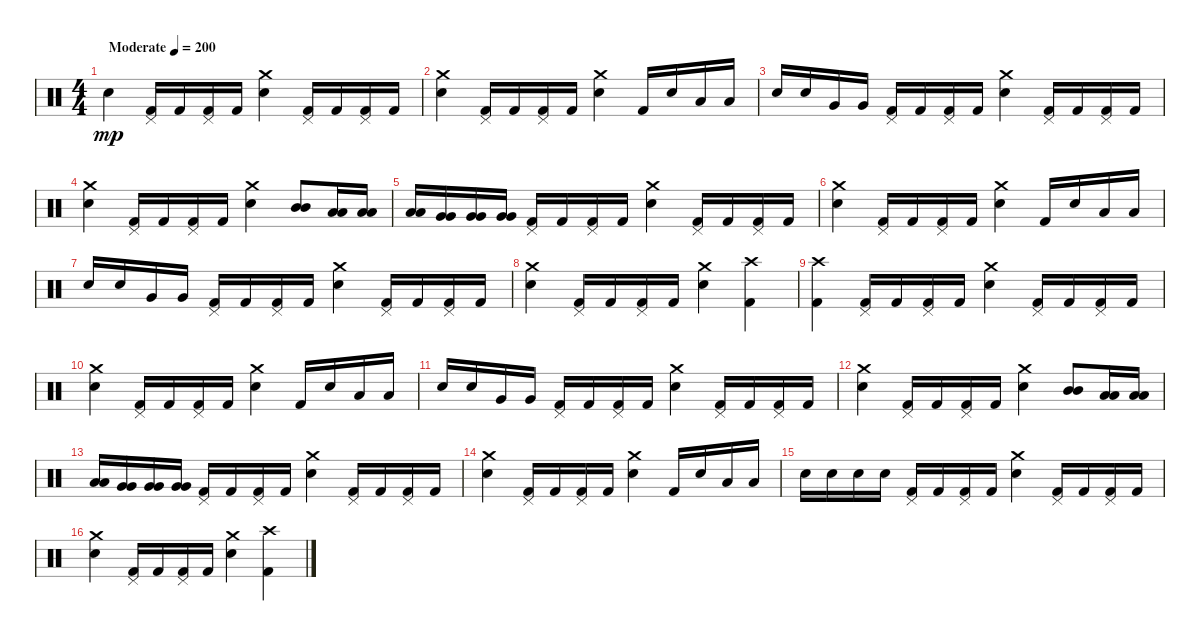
\track "" {instrument percussion}
\staff {score}
\articulation defaults
\ts (4 4)
\tempo (200 "Moderate")
\clef neutral
\ks c "Electric Snare (hit)".4{dy mp}
("Kick (hit) 2" "Pedal Hi-Hat (hit)").16 "Kick (hit) 2".16 ("Kick (hit) 2" "Pedal Hi-Hat (hit)").16 "Kick (hit) 2".16 ("Electric Snare (hit)" "Crash medium (hit)").4 ("Kick (hit) 2" "Pedal Hi-Hat (hit)").16 "Kick (hit) 2".16 ("Kick (hit) 2" "Pedal Hi-Hat (hit)").16 "Kick (hit) 2".16 |
("Electric Snare (hit)" "Crash medium (hit)").4 ("Kick (hit) 2" "Pedal Hi-Hat (hit)").16 "Kick (hit) 2".16 ("Kick (hit) 2" "Pedal Hi-Hat (hit)").16 "Kick (hit) 2".16 ("Electric Snare (hit)" "Crash medium (hit)").4 "Kick (hit) 2".16 "Electric Snare (hit)".16 "Low Tom (hit)".16 "Low Tom (hit)".16 |
"Electric Snare (hit)".16 "Electric Snare (hit)".16 "Very Low Tom (hit)".16 "Very Low Tom (hit)".16 ("Kick (hit) 2" "Pedal Hi-Hat (hit)").16 "Kick (hit) 2".16 ("Kick (hit) 2" "Pedal Hi-Hat (hit)").16 "Kick (hit) 2".16 ("Electric Snare (hit)" "Crash medium (hit)").4 ("Kick (hit) 2" "Pedal Hi-Hat (hit)").16 "Kick (hit) 2".16 ("Kick (hit) 2" "Pedal Hi-Hat (hit)").16 "Kick (hit) 2".16 |
("Electric Snare (hit)" "Crash medium (hit)").4 ("Kick (hit) 2" "Pedal Hi-Hat (hit)").16 "Kick (hit) 2".16 ("Kick (hit) 2" "Pedal Hi-Hat (hit)").16 "Kick (hit) 2".16 ("Electric Snare (hit)" "Crash medium (hit)").4 ("Mid Tom (hit)" "Mid Tom (hit)").8 ("Low Tom (hit)" "Low Tom (hit)").16 ("Low Tom (hit)" "Low Tom (hit)").16 |
("Low Tom (hit)" "Low Tom (hit)").16 ("Very Low Tom (hit)" "Very Low Tom (hit)").16 ("Very Low Tom (hit)" "Very Low Tom (hit)").16 ("Very Low Tom (hit)" "Very Low Tom (hit)").16 ("Kick (hit) 2" "Pedal Hi-Hat (hit)").16 "Kick (hit) 2".16 ("Kick (hit) 2" "Pedal Hi-Hat (hit)").16 "Kick (hit) 2".16 ("Electric Snare (hit)" "Crash medium (hit)").4 ("Kick (hit) 2" "Pedal Hi-Hat (hit)").16 "Kick (hit) 2".16 ("Kick (hit) 2" "Pedal Hi-Hat (hit)").16 "Kick (hit) 2".16 |
("Electric Snare (hit)" "Crash medium (hit)").4 ("Kick (hit) 2" "Pedal Hi-Hat (hit)").16 "Kick (hit) 2".16 ("Kick (hit) 2" "Pedal Hi-Hat (hit)").16 "Kick (hit) 2".16 ("Electric Snare (hit)" "Crash medium (hit)").4 "Kick (hit) 2".16 "Electric Snare (hit)".16 "Low Tom (hit)".16 "Low Tom (hit)".16 |
"Electric Snare (hit)".16 "Electric Snare (hit)".16 "Very Low Tom (hit)".16 "Very Low Tom (hit)".16 ("Kick (hit) 2" "Pedal Hi-Hat (hit)").16 "Kick (hit) 2".16 ("Kick (hit) 2" "Pedal Hi-Hat (hit)").16 "Kick (hit) 2".16 ("Electric Snare (hit)" "Crash medium (hit)").4 ("Kick (hit) 2" "Pedal Hi-Hat (hit)").16 "Kick (hit) 2".16 ("Kick (hit) 2" "Pedal Hi-Hat (hit)").16 "Kick (hit) 2".16 |
("Electric Snare (hit)" "Crash medium (hit)").4 ("Kick (hit) 2" "Pedal Hi-Hat (hit)").16 "Kick (hit) 2".16 ("Kick (hit) 2" "Pedal Hi-Hat (hit)").16 "Kick (hit) 2".16 ("Electric Snare (hit)" "Crash medium (hit)").4 ("Kick (hit) 2" "Crash high (hit)").4 |
("Kick (hit) 2" "Crash high (hit)").4 ("Kick (hit) 2" "Pedal Hi-Hat (hit)").16 "Kick (hit) 2".16 ("Kick (hit) 2" "Pedal Hi-Hat (hit)").16 "Kick (hit) 2".16 ("Electric Snare (hit)" "Crash medium (hit)").4 ("Kick (hit) 2" "Pedal Hi-Hat (hit)").16 "Kick (hit) 2".16 ("Kick (hit) 2" "Pedal Hi-Hat (hit)").16 "Kick (hit) 2".16 |
("Electric Snare (hit)" "Crash medium (hit)").4 ("Kick (hit) 2" "Pedal Hi-Hat (hit)").16 "Kick (hit) 2".16 ("Kick (hit) 2" "Pedal Hi-Hat (hit)").16 "Kick (hit) 2".16 ("Electric Snare (hit)" "Crash medium (hit)").4 "Kick (hit) 2".16 "Electric Snare (hit)".16 "Low Tom (hit)".16 "Low Tom (hit)".16 |
"Electric Snare (hit)".16 "Electric Snare (hit)".16 "Very Low Tom (hit)".16 "Very Low Tom (hit)".16 ("Kick (hit) 2" "Pedal Hi-Hat (hit)").16 "Kick (hit) 2".16 ("Kick (hit) 2" "Pedal Hi-Hat (hit)").16 "Kick (hit) 2".16 ("Electric Snare (hit)" "Crash medium (hit)").4 ("Kick (hit) 2" "Pedal Hi-Hat (hit)").16 "Kick (hit) 2".16 ("Kick (hit) 2" "Pedal Hi-Hat (hit)").16 "Kick (hit) 2".16 |
("Electric Snare (hit)" "Crash medium (hit)").4 ("Kick (hit) 2" "Pedal Hi-Hat (hit)").16 "Kick (hit) 2".16 ("Kick (hit) 2" "Pedal Hi-Hat (hit)").16 "Kick (hit) 2".16 ("Electric Snare (hit)" "Crash medium (hit)").4 ("Mid Tom (hit)" "Mid Tom (hit)").8 ("Low Tom (hit)" "Low Tom (hit)").16 ("Low Tom (hit)" "Low Tom (hit)").16 |
("Low Tom (hit)" "Low Tom (hit)").16 ("Very Low Tom (hit)" "Very Low Tom (hit)").16 ("Very Low Tom (hit)" "Very Low Tom (hit)").16 ("Very Low Tom (hit)" "Very Low Tom (hit)").16 ("Kick (hit) 2" "Pedal Hi-Hat (hit)").16 "Kick (hit) 2".16 ("Kick (hit) 2" "Pedal Hi-Hat (hit)").16 "Kick (hit) 2".16 ("Electric Snare (hit)" "Crash medium (hit)").4 ("Kick (hit) 2" "Pedal Hi-Hat (hit)").16 "Kick (hit) 2".16 ("Kick (hit) 2" "Pedal Hi-Hat (hit)").16 "Kick (hit) 2".16 |
("Electric Snare (hit)" "Crash medium (hit)").4 ("Kick (hit) 2" "Pedal Hi-Hat (hit)").16 "Kick (hit) 2".16 ("Kick (hit) 2" "Pedal Hi-Hat (hit)").16 "Kick (hit) 2".16 ("Electric Snare (hit)" "Crash medium (hit)").4 "Kick (hit) 2".16 "Electric Snare (hit)".16 "Low Tom (hit)".16 "Low Tom (hit)".16 |
"Electric Snare (hit)".16 "Electric Snare (hit)".16 "Electric Snare (hit)".16 "Electric Snare (hit)".16 ("Kick (hit) 2" "Pedal Hi-Hat (hit)").16 "Kick (hit) 2".16 ("Kick (hit) 2" "Pedal Hi-Hat (hit)").16 "Kick (hit) 2".16 ("Electric Snare (hit)" "Crash medium (hit)").4 ("Kick (hit) 2" "Pedal Hi-Hat (hit)").16 "Kick (hit) 2".16 ("Kick (hit) 2" "Pedal Hi-Hat (hit)").16 "Kick (hit) 2".16 |
("Electric Snare (hit)" "Crash medium (hit)").4 ("Kick (hit) 2" "Pedal Hi-Hat (hit)").16 "Kick (hit) 2".16 ("Kick (hit) 2" "Pedal Hi-Hat (hit)").16 "Kick (hit) 2".16 ("Electric Snare (hit)" "Crash medium (hit)").4 ("Kick (hit) 2" "Crash high (hit)").4
